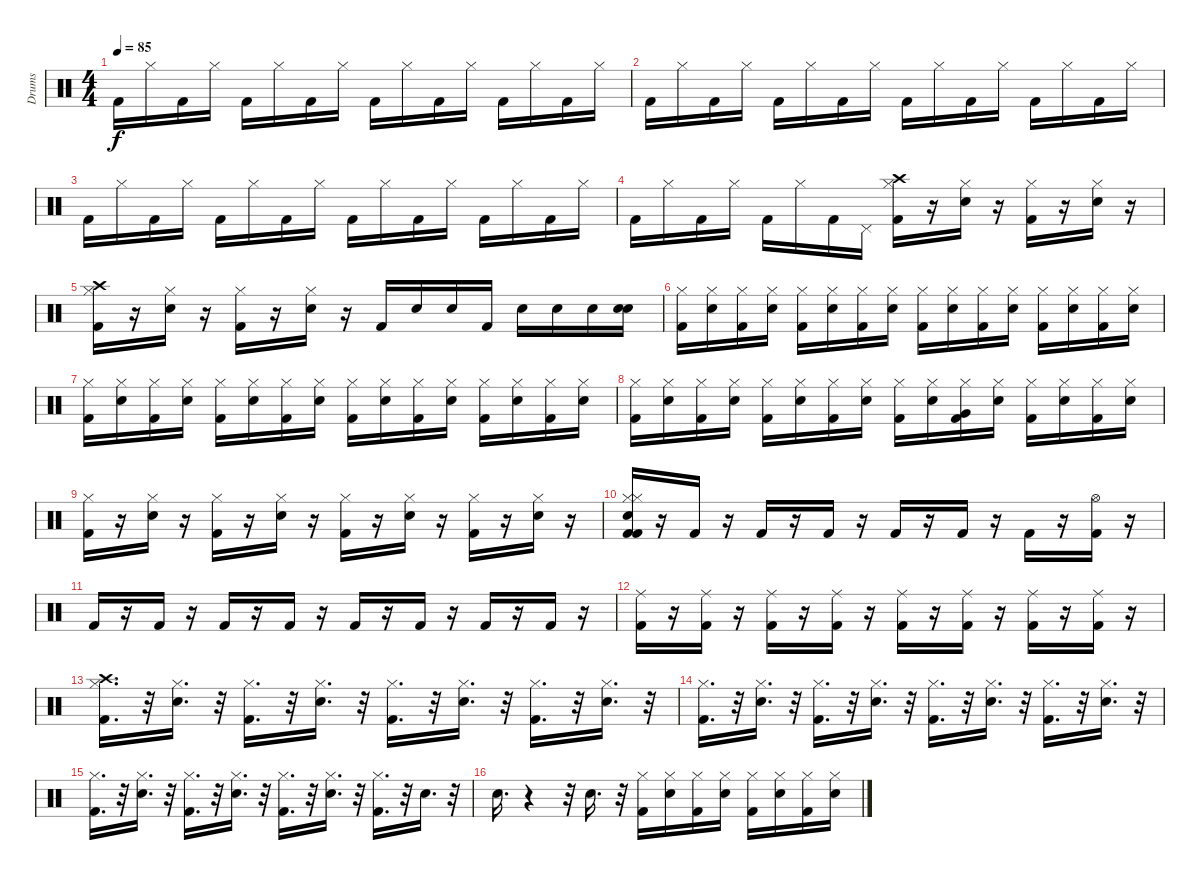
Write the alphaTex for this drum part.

\track ("Drums" "Drums") {instrument percussion}
\staff {score}
\articulation defaults
\ts (4 4)
\tempo 85
\clef neutral
\ks c "Kick (hit) 2".16{dy f} "Hi-Hat (closed)".16 "Kick (hit) 2".16 "Hi-Hat (closed)".16 "Kick (hit) 2".16 "Hi-Hat (closed)".16 "Kick (hit) 2".16 "Hi-Hat (closed)".16 "Kick (hit) 2".16 "Hi-Hat (closed)".16 "Kick (hit) 2".16 "Hi-Hat (closed)".16 "Kick (hit) 2".16 "Hi-Hat (closed)".16 "Kick (hit) 2".16 "Hi-Hat (closed)".16
|
"Kick (hit) 2".16 "Hi-Hat (closed)".16 "Kick (hit) 2".16 "Hi-Hat (closed)".16 "Kick (hit) 2".16 "Hi-Hat (closed)".16 "Kick (hit) 2".16 "Hi-Hat (closed)".16 "Kick (hit) 2".16 "Hi-Hat (closed)".16 "Kick (hit) 2".16 "Hi-Hat (closed)".16 "Kick (hit) 2".16 "Hi-Hat (closed)".16 "Kick (hit) 2".16 "Hi-Hat (closed)".16 |
"Kick (hit) 2".16 "Hi-Hat (closed)".16 "Kick (hit) 2".16 "Hi-Hat (closed)".16 "Kick (hit) 2".16 "Hi-Hat (closed)".16 "Kick (hit) 2".16 "Hi-Hat (closed)".16 "Kick (hit) 2".16 "Hi-Hat (closed)".16 "Kick (hit) 2".16 "Hi-Hat (closed)".16 "Kick (hit) 2".16 "Hi-Hat (closed)".16 "Kick (hit) 2".16 "Hi-Hat (closed)".16 |
"Kick (hit) 2".16 "Hi-Hat (closed)".16 "Kick (hit) 2".16 "Hi-Hat (closed)".16 "Kick (hit) 2".16 "Hi-Hat (closed)".16 "Kick (hit) 2".16 "Pedal Hi-Hat (hit)".16 ("Crash high (hit)" "Kick (hit) 2" "Hi-Hat (closed)").16 r.16 ("Hi-Hat (closed)" "Snare (hit) 2").16 r.16 ("Kick (hit) 2" "Hi-Hat (closed)").16 r.16 ("Hi-Hat (closed)" "Snare (hit) 2").16 r.16 |
("Hi-Hat (closed)" "Kick (hit) 2" "Crash high (hit)").16 r.16 ("Snare (hit) 2" "Hi-Hat (closed)").16 r.16 ("Kick (hit) 2" "Hi-Hat (closed)").16 r.16 ("Hi-Hat (closed)" "Snare (hit) 2").16 r.16 "Kick (hit) 2".16 "Snare (hit) 2".16 "Snare (hit) 2".16 "Kick (hit) 2".16 "Snare (hit) 2".16 "Snare (hit) 2".16 "Snare (hit) 2".16 ("Snare (hit) 2" "Snare (hit) 2").16 |
("Kick (hit) 2" "Hi-Hat (closed)").16 ("Hi-Hat (closed)" "Snare (hit) 2").16 ("Kick (hit) 2" "Hi-Hat (closed)").16 ("Snare (hit) 2" "Hi-Hat (closed)").16 ("Hi-Hat (closed)" "Kick (hit) 2").16 ("Snare (hit) 2" "Hi-Hat (closed)").16 ("Kick (hit) 2" "Hi-Hat (closed)").16 ("Snare (hit) 2" "Hi-Hat (closed)").16 ("Hi-Hat (closed)" "Kick (hit) 2").16 ("Hi-Hat (closed)" "Snare (hit) 2").16 ("Hi-Hat (closed)" "Kick (hit) 2").16 ("Snare (hit) 2" "Hi-Hat (closed)").16 ("Hi-Hat (closed)" "Kick (hit) 2").16 ("Hi-Hat (closed)" "Snare (hit) 2").16 ("Kick (hit) 2" "Hi-Hat (closed)").16 ("Snare (hit) 2" "Hi-Hat (closed)").16 |
("Hi-Hat (closed)" "Kick (hit) 2").16 ("Hi-Hat (closed)" "Snare (hit) 2").16 ("Kick (hit) 2" "Hi-Hat (closed)").16 ("Hi-Hat (closed)" "Snare (hit) 2").16 ("Kick (hit) 2" "Hi-Hat (closed)").16 ("Snare (hit) 2" "Hi-Hat (closed)").16 ("Hi-Hat (closed)" "Kick (hit) 2").16 ("Hi-Hat (closed)" "Snare (hit) 2").16 ("Hi-Hat (closed)" "Kick (hit) 2").16 ("Hi-Hat (closed)" "Snare (hit) 2").16 ("Hi-Hat (closed)" "Kick (hit) 2").16 ("Hi-Hat (closed)" "Snare (hit) 2").16 ("Hi-Hat (closed)" "Kick (hit) 2").16 ("Snare (hit) 2" "Hi-Hat (closed)").16 ("Hi-Hat (closed)" "Kick (hit) 2").16 ("Snare (hit) 2" "Hi-Hat (closed)").16 |
("Kick (hit) 2" "Hi-Hat (closed)").16 ("Hi-Hat (closed)" "Snare (hit) 2").16 ("Hi-Hat (closed)" "Kick (hit) 2").16 ("Hi-Hat (closed)" "Snare (hit) 2").16 ("Hi-Hat (closed)" "Kick (hit) 2").16 ("Snare (hit) 2" "Hi-Hat (closed)").16 ("Hi-Hat (closed)" "Kick (hit) 2").16 ("Snare (hit) 2" "Hi-Hat (closed)").16 ("Kick (hit) 2" "Hi-Hat (closed)").16 ("Snare (hit) 2" "Hi-Hat (closed)").16 ("Very Low Tom (hit)" "Hi-Hat (closed)" "Kick (hit) 2").16 ("Snare (hit) 2" "Hi-Hat (closed)").16 ("Hi-Hat (closed)" "Kick (hit) 2").16 ("Hi-Hat (closed)" "Snare (hit) 2").16 ("Kick (hit) 2" "Hi-Hat (closed)").16 ("Hi-Hat (closed)" "Snare (hit) 2").16 |
("Hi-Hat (closed)" "Kick (hit) 2").16 r.16 ("Hi-Hat (closed)" "Snare (hit) 2").16 r.16 ("Hi-Hat (closed)" "Kick (hit) 2").16 r.16 ("Snare (hit) 2" "Hi-Hat (closed)").16 r.16 ("Hi-Hat (closed)" "Kick (hit) 2").16 r.16 ("Hi-Hat (closed)" "Snare (hit) 2").16 r.16 ("Hi-Hat (closed)" "Kick (hit) 2").16 r.16 ("Hi-Hat (closed)" "Snare (hit) 2").16 r.16 |
("Hi-Hat (closed)" "Kick (hit) 2" "Hi-Hat (closed)" "Kick (hit) 2" "Snare (hit) 2").16 r.16 "Kick (hit) 2".16 r.16 "Kick (hit) 2".16 r.16 "Kick (hit) 2".16 r.16 "Kick (hit) 2".16 r.16 "Kick (hit) 2".16 r.16 "Kick (hit) 2".16 r.16 ("Hi-Hat (open)" "Kick (hit) 2").16 r.16 |
"Kick (hit) 2".16 r.16 "Kick (hit) 2".16 r.16 "Kick (hit) 2".16 r.16 "Kick (hit) 2".16 r.16 "Kick (hit) 2".16 r.16 "Kick (hit) 2".16 r.16 "Kick (hit) 2".16 r.16 "Kick (hit) 2".16 r.16 |
("Ride (middle)" "Kick (hit) 2").16 r.16 ("Kick (hit) 2" "Ride (middle)").16 r.16 ("Ride (middle)" "Kick (hit) 2").16 r.16 ("Kick (hit) 2" "Ride (middle)").16 r.16 ("Ride (middle)" "Kick (hit) 2").16 r.16 ("Ride (middle)" "Kick (hit) 2").16 r.16 ("Ride (middle)" "Kick (hit) 2").16 r.16 ("Kick (hit) 2" "Ride (middle)").16 r.16 |
("Hi-Hat (closed)" "Kick (hit) 2" "Crash high (hit)").16{d} r.32 ("Snare (hit) 2" "Hi-Hat (closed)").16{d} r.32 ("Hi-Hat (closed)" "Kick (hit) 2").16{d} r.32 ("Snare (hit) 2" "Hi-Hat (closed)").16{d} r.32 ("Kick (hit) 2" "Hi-Hat (closed)").16{d} r.32 ("Snare (hit) 2" "Hi-Hat (closed)").16{d} r.32 ("Hi-Hat (closed)" "Kick (hit) 2").16{d} r.32 ("Snare (hit) 2" "Hi-Hat (closed)").16{d} r.32 |
("Hi-Hat (closed)" "Kick (hit) 2").16{d} r.32 ("Snare (hit) 2" "Hi-Hat (closed)").16{d} r.32 ("Hi-Hat (closed)" "Kick (hit) 2").16{d} r.32 ("Hi-Hat (closed)" "Snare (hit) 2").16{d} r.32 ("Hi-Hat (closed)" "Kick (hit) 2").16{d} r.32 ("Hi-Hat (closed)" "Snare (hit) 2").16{d} r.32 ("Hi-Hat (closed)" "Kick (hit) 2").16{d} r.32 ("Snare (hit) 2" "Hi-Hat (closed)").16{d} r.32 |
("Hi-Hat (closed)" "Kick (hit) 2").16{d} r.32 ("Hi-Hat (closed)" "Snare (hit) 2").16{d} r.32 ("Kick (hit) 2" "Hi-Hat (closed)").16{d} r.32 ("Hi-Hat (closed)" "Snare (hit) 2").16{d} r.32 ("Hi-Hat (closed)" "Kick (hit) 2").16{d} r.32 ("Hi-Hat (closed)" "Snare (hit) 2").16{d} r.32 ("Kick (hit) 2" "Hi-Hat (closed)").16{d} r.32 "Snare (hit) 2".16{d} r.32 |
"Snare (hit) 2".16{d} r.4 r.32 "Snare (hit) 2".16{d} r.32 ("Kick (hit) 2" "Hi-Hat (closed)").16 ("Hi-Hat (closed)" "Snare (hit) 2").16 ("Hi-Hat (closed)" "Kick (hit) 2").16 ("Hi-Hat (closed)" "Snare (hit) 2").16 ("Kick (hit) 2" "Hi-Hat (closed)").16 ("Hi-Hat (closed)" "Snare (hit) 2").16 ("Kick (hit) 2" "Hi-Hat (closed)").16 ("Hi-Hat (closed)" "Snare (hit) 2").16
